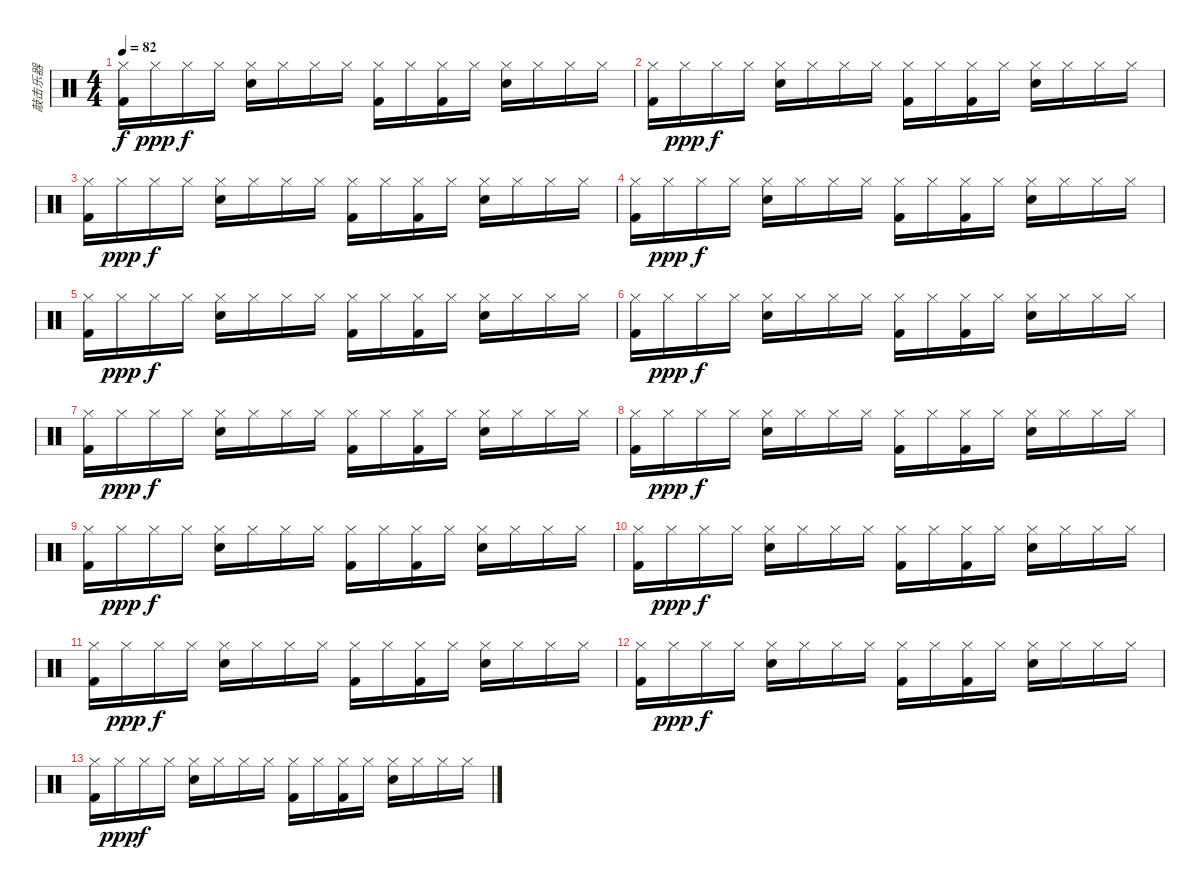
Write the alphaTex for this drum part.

\track ("敲击乐器" "敲击乐器") {instrument percussion}
\staff {score}
\articulation defaults
\ts (4 4)
\tempo 82
\clef neutral
\ks c
("Kick (hit) 2" "Hi-Hat (closed)").16{dy f} "Hi-Hat (closed)".16{dy ppp} "Hi-Hat (closed)".16{dy f} "Hi-Hat (closed)".16 ("Electric Snare (hit)" "Hi-Hat (closed)").16 "Hi-Hat (closed)".16 "Hi-Hat (closed)".16 "Hi-Hat (closed)".16 ("Kick (hit) 2" "Hi-Hat (closed)").16 "Hi-Hat (closed)".16 ("Kick (hit) 2" "Hi-Hat (closed)").16 "Hi-Hat (closed)".16 ("Electric Snare (hit)" "Hi-Hat (closed)").16 "Hi-Hat (closed)".16 "Hi-Hat (closed)".16 "Hi-Hat (closed)".16 |
("Kick (hit) 2" "Hi-Hat (closed)").16 "Hi-Hat (closed)".16{dy ppp} "Hi-Hat (closed)".16{dy f} "Hi-Hat (closed)".16 ("Electric Snare (hit)" "Hi-Hat (closed)").16 "Hi-Hat (closed)".16 "Hi-Hat (closed)".16 "Hi-Hat (closed)".16 ("Kick (hit) 2" "Hi-Hat (closed)").16 "Hi-Hat (closed)".16 ("Kick (hit) 2" "Hi-Hat (closed)").16 "Hi-Hat (closed)".16 ("Electric Snare (hit)" "Hi-Hat (closed)").16 "Hi-Hat (closed)".16 "Hi-Hat (closed)".16 "Hi-Hat (closed)".16 |
("Kick (hit) 2" "Hi-Hat (closed)").16 "Hi-Hat (closed)".16{dy ppp} "Hi-Hat (closed)".16{dy f} "Hi-Hat (closed)".16 ("Electric Snare (hit)" "Hi-Hat (closed)").16 "Hi-Hat (closed)".16 "Hi-Hat (closed)".16 "Hi-Hat (closed)".16 ("Kick (hit) 2" "Hi-Hat (closed)").16 "Hi-Hat (closed)".16 ("Kick (hit) 2" "Hi-Hat (closed)").16 "Hi-Hat (closed)".16 ("Electric Snare (hit)" "Hi-Hat (closed)").16 "Hi-Hat (closed)".16 "Hi-Hat (closed)".16 "Hi-Hat (closed)".16 |
("Kick (hit) 2" "Hi-Hat (closed)").16 "Hi-Hat (closed)".16{dy ppp} "Hi-Hat (closed)".16{dy f} "Hi-Hat (closed)".16 ("Electric Snare (hit)" "Hi-Hat (closed)").16 "Hi-Hat (closed)".16 "Hi-Hat (closed)".16 "Hi-Hat (closed)".16 ("Kick (hit) 2" "Hi-Hat (closed)").16 "Hi-Hat (closed)".16 ("Kick (hit) 2" "Hi-Hat (closed)").16 "Hi-Hat (closed)".16 ("Electric Snare (hit)" "Hi-Hat (closed)").16 "Hi-Hat (closed)".16 "Hi-Hat (closed)".16 "Hi-Hat (closed)".16 |
("Kick (hit) 2" "Hi-Hat (closed)").16 "Hi-Hat (closed)".16{dy ppp} "Hi-Hat (closed)".16{dy f} "Hi-Hat (closed)".16 ("Electric Snare (hit)" "Hi-Hat (closed)").16 "Hi-Hat (closed)".16 "Hi-Hat (closed)".16 "Hi-Hat (closed)".16 ("Kick (hit) 2" "Hi-Hat (closed)").16 "Hi-Hat (closed)".16 ("Kick (hit) 2" "Hi-Hat (closed)").16 "Hi-Hat (closed)".16 ("Electric Snare (hit)" "Hi-Hat (closed)").16 "Hi-Hat (closed)".16 "Hi-Hat (closed)".16 "Hi-Hat (closed)".16 |
("Kick (hit) 2" "Hi-Hat (closed)").16 "Hi-Hat (closed)".16{dy ppp} "Hi-Hat (closed)".16{dy f} "Hi-Hat (closed)".16 ("Electric Snare (hit)" "Hi-Hat (closed)").16 "Hi-Hat (closed)".16 "Hi-Hat (closed)".16 "Hi-Hat (closed)".16 ("Kick (hit) 2" "Hi-Hat (closed)").16 "Hi-Hat (closed)".16 ("Kick (hit) 2" "Hi-Hat (closed)").16 "Hi-Hat (closed)".16 ("Electric Snare (hit)" "Hi-Hat (closed)").16 "Hi-Hat (closed)".16 "Hi-Hat (closed)".16 "Hi-Hat (closed)".16 |
("Kick (hit) 2" "Hi-Hat (closed)").16 "Hi-Hat (closed)".16{dy ppp} "Hi-Hat (closed)".16{dy f} "Hi-Hat (closed)".16 ("Electric Snare (hit)" "Hi-Hat (closed)").16 "Hi-Hat (closed)".16 "Hi-Hat (closed)".16 "Hi-Hat (closed)".16 ("Kick (hit) 2" "Hi-Hat (closed)").16 "Hi-Hat (closed)".16 ("Kick (hit) 2" "Hi-Hat (closed)").16 "Hi-Hat (closed)".16 ("Electric Snare (hit)" "Hi-Hat (closed)").16 "Hi-Hat (closed)".16 "Hi-Hat (closed)".16 "Hi-Hat (closed)".16 |
("Kick (hit) 2" "Hi-Hat (closed)").16 "Hi-Hat (closed)".16{dy ppp} "Hi-Hat (closed)".16{dy f} "Hi-Hat (closed)".16 ("Electric Snare (hit)" "Hi-Hat (closed)").16 "Hi-Hat (closed)".16 "Hi-Hat (closed)".16 "Hi-Hat (closed)".16 ("Kick (hit) 2" "Hi-Hat (closed)").16 "Hi-Hat (closed)".16 ("Kick (hit) 2" "Hi-Hat (closed)").16 "Hi-Hat (closed)".16 ("Electric Snare (hit)" "Hi-Hat (closed)").16 "Hi-Hat (closed)".16 "Hi-Hat (closed)".16 "Hi-Hat (closed)".16 |
("Kick (hit) 2" "Hi-Hat (closed)").16 "Hi-Hat (closed)".16{dy ppp} "Hi-Hat (closed)".16{dy f} "Hi-Hat (closed)".16 ("Electric Snare (hit)" "Hi-Hat (closed)").16 "Hi-Hat (closed)".16 "Hi-Hat (closed)".16 "Hi-Hat (closed)".16 ("Kick (hit) 2" "Hi-Hat (closed)").16 "Hi-Hat (closed)".16 ("Kick (hit) 2" "Hi-Hat (closed)").16 "Hi-Hat (closed)".16 ("Electric Snare (hit)" "Hi-Hat (closed)").16 "Hi-Hat (closed)".16 "Hi-Hat (closed)".16 "Hi-Hat (closed)".16 |
("Kick (hit) 2" "Hi-Hat (closed)").16 "Hi-Hat (closed)".16{dy ppp} "Hi-Hat (closed)".16{dy f} "Hi-Hat (closed)".16 ("Electric Snare (hit)" "Hi-Hat (closed)").16 "Hi-Hat (closed)".16 "Hi-Hat (closed)".16 "Hi-Hat (closed)".16 ("Kick (hit) 2" "Hi-Hat (closed)").16 "Hi-Hat (closed)".16 ("Kick (hit) 2" "Hi-Hat (closed)").16 "Hi-Hat (closed)".16 ("Electric Snare (hit)" "Hi-Hat (closed)").16 "Hi-Hat (closed)".16 "Hi-Hat (closed)".16 "Hi-Hat (closed)".16 |
("Kick (hit) 2" "Hi-Hat (closed)").16 "Hi-Hat (closed)".16{dy ppp} "Hi-Hat (closed)".16{dy f} "Hi-Hat (closed)".16 ("Electric Snare (hit)" "Hi-Hat (closed)").16 "Hi-Hat (closed)".16 "Hi-Hat (closed)".16 "Hi-Hat (closed)".16 ("Kick (hit) 2" "Hi-Hat (closed)").16 "Hi-Hat (closed)".16 ("Kick (hit) 2" "Hi-Hat (closed)").16 "Hi-Hat (closed)".16 ("Electric Snare (hit)" "Hi-Hat (closed)").16 "Hi-Hat (closed)".16 "Hi-Hat (closed)".16 "Hi-Hat (closed)".16 |
("Kick (hit) 2" "Hi-Hat (closed)").16 "Hi-Hat (closed)".16{dy ppp} "Hi-Hat (closed)".16{dy f} "Hi-Hat (closed)".16 ("Electric Snare (hit)" "Hi-Hat (closed)").16 "Hi-Hat (closed)".16 "Hi-Hat (closed)".16 "Hi-Hat (closed)".16 ("Kick (hit) 2" "Hi-Hat (closed)").16 "Hi-Hat (closed)".16 ("Kick (hit) 2" "Hi-Hat (closed)").16 "Hi-Hat (closed)".16 ("Electric Snare (hit)" "Hi-Hat (closed)").16 "Hi-Hat (closed)".16 "Hi-Hat (closed)".16 "Hi-Hat (closed)".16 |
("Kick (hit) 2" "Hi-Hat (closed)").16 "Hi-Hat (closed)".16{dy ppp} "Hi-Hat (closed)".16{dy f} "Hi-Hat (closed)".16 ("Electric Snare (hit)" "Hi-Hat (closed)").16 "Hi-Hat (closed)".16 "Hi-Hat (closed)".16 "Hi-Hat (closed)".16 ("Kick (hit) 2" "Hi-Hat (closed)").16 "Hi-Hat (closed)".16 ("Kick (hit) 2" "Hi-Hat (closed)").16 "Hi-Hat (closed)".16 ("Electric Snare (hit)" "Hi-Hat (closed)").16 "Hi-Hat (closed)".16 "Hi-Hat (closed)".16 "Hi-Hat (closed)".16
